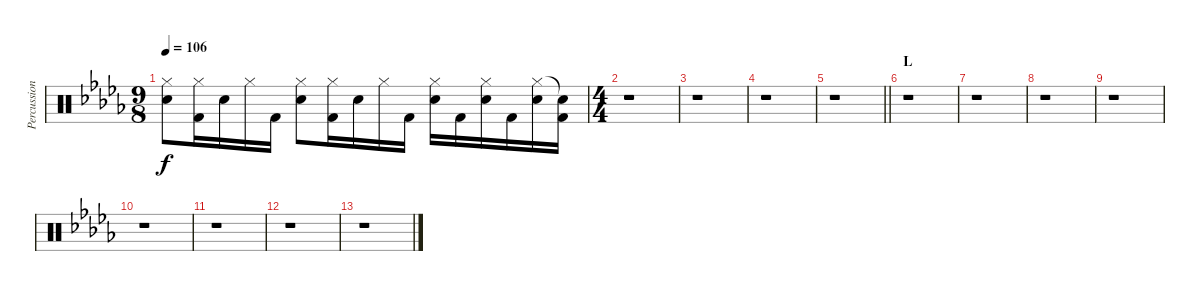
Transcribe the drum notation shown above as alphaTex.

\track ("Percussion" "Percussion") {instrument percussion}
\staff {score}
\articulation defaults
\ts (9 8)
\tempo 106
\clef neutral
\ks db
("Hi-Hat (closed)" "Electric Snare (hit)").8{dy f} ("Hi-Hat (closed)" "Kick (hit) 2").16 "Electric Snare (hit)".16 "Hi-Hat (closed)".16 "Kick (hit) 2".16 ("Hi-Hat (closed)" "Electric Snare (hit)").8 ("Hi-Hat (closed)" "Kick (hit) 2").16 "Electric Snare (hit)".16 "Hi-Hat (closed)".16 "Kick (hit) 2".16 ("Hi-Hat (closed)" "Electric Snare (hit)").16 "Kick (hit) 2".16 ("Hi-Hat (closed)" "Electric Snare (hit)").16 "Kick (hit) 2".16 ("Hi-Hat (closed)" "Electric Snare (hit)").16 ("Snare (hit)"{t} "Kick (hit) 2").16 |
\ts (4 4)
r.1 |
r.1 |
r.1 |
\barLineRight lightlight
r.1 |
\section ("" "L")
r.1 |
r.1 |
r.1 |
r.1 |
r.1 |
r.1 |
r.1 |
r.1
